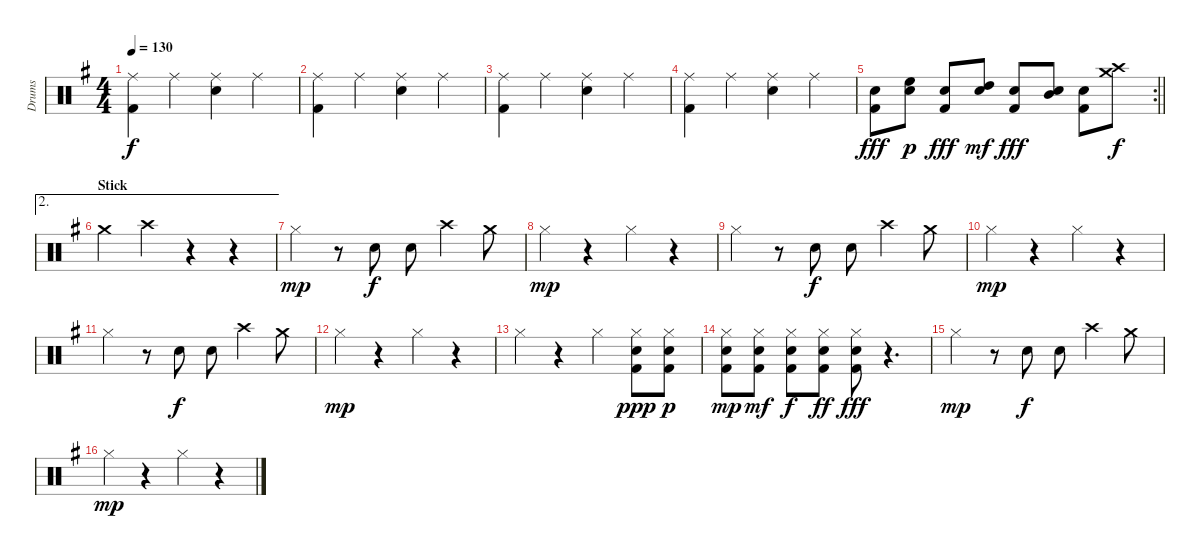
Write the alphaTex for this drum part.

\track ("Drums" "Drums") {instrument percussion}
\staff {score}
\articulation defaults
\ts (4 4)
\tempo 130
\clef neutral
\ks g
("Ride (middle)" "Kick (hit) 2").4{dy f} "Ride (middle)".4 ("Ride (middle)" "Snare (hit) 2").4 "Ride (middle)".4 |
("Ride (middle)" "Kick (hit) 2").4 "Ride (middle)".4 ("Ride (middle)" "Snare (hit) 2").4 "Ride (middle)".4 |
("Ride (middle)" "Kick (hit) 2").4 "Ride (middle)".4 ("Ride (middle)" "Snare (hit) 2").4 "Ride (middle)".4 |
("Ride (middle)" "Kick (hit) 2").4 "Ride (middle)".4 ("Ride (middle)" "Snare (hit) 2").4 "Ride (middle)".4 |
\rc 2
\barLineRight lightlight
("Snare (hit) 2" "Kick (hit) 2").8{dy fff} ("High Floor Tom (hit)" "Snare (hit) 2").8{dy p} ("Snare (hit) 2" "Kick (hit) 2").8{dy fff} ("High Tom (hit)" "Snare (hit) 2").8{dy mf} ("Snare (hit) 2" "Kick (hit) 2").8{dy fff} ("Mid Tom (hit)" "Snare (hit) 2").8 ("Snare (hit) 2" "Kick (hit) 2").8 ("Crash medium (hit)" "Crash high (hit)").8{dy f} |
\ae 2
\section ("" "Stick")
"Crash medium (hit)".4 "Crash high (hit)".4 r.4 r.4 |
"Hi-Hat (closed)".4{dy mp} r.8 "Snare (hit) 2".8{dy f} "Snare (hit) 2".8 "Crash high (hit)".4 "Crash medium (hit)".8 |
"Hi-Hat (closed)".4{dy mp} r.4 "Hi-Hat (closed)".4 r.4 |
"Hi-Hat (closed)".4 r.8 "Snare (hit) 2".8{dy f} "Snare (hit) 2".8 "Crash high (hit)".4 "Crash medium (hit)".8 |
"Hi-Hat (closed)".4{dy mp} r.4 "Hi-Hat (closed)".4 r.4 |
"Hi-Hat (closed)".4 r.8 "Snare (hit) 2".8{dy f} "Snare (hit) 2".8 "Crash high (hit)".4 "Crash medium (hit)".8 |
"Hi-Hat (closed)".4{dy mp} r.4 "Hi-Hat (closed)".4 r.4 |
"Hi-Hat (closed)".4 r.4 "Hi-Hat (closed)".4 ("Hi-Hat (closed)" "Snare (hit) 2" "Kick (hit) 2").8{dy ppp} ("Hi-Hat (closed)" "Snare (hit) 2" "Kick (hit) 2").8{dy p} |
("Hi-Hat (closed)" "Snare (hit) 2" "Kick (hit) 2").8{dy mp} ("Hi-Hat (closed)" "Snare (hit) 2" "Kick (hit) 2").8{dy mf} ("Hi-Hat (closed)" "Snare (hit) 2" "Kick (hit) 2").8{dy f} ("Hi-Hat (closed)" "Snare (hit) 2" "Kick (hit) 2").8{dy ff} ("Hi-Hat (closed)" "Snare (hit) 2" "Kick (hit) 2").8{dy fff} r.4{d} |
"Hi-Hat (closed)".4{dy mp} r.8 "Snare (hit) 2".8{dy f} "Snare (hit) 2".8 "Crash high (hit)".4 "Crash medium (hit)".8 |
"Hi-Hat (closed)".4{dy mp} r.4 "Hi-Hat (closed)".4 r.4
